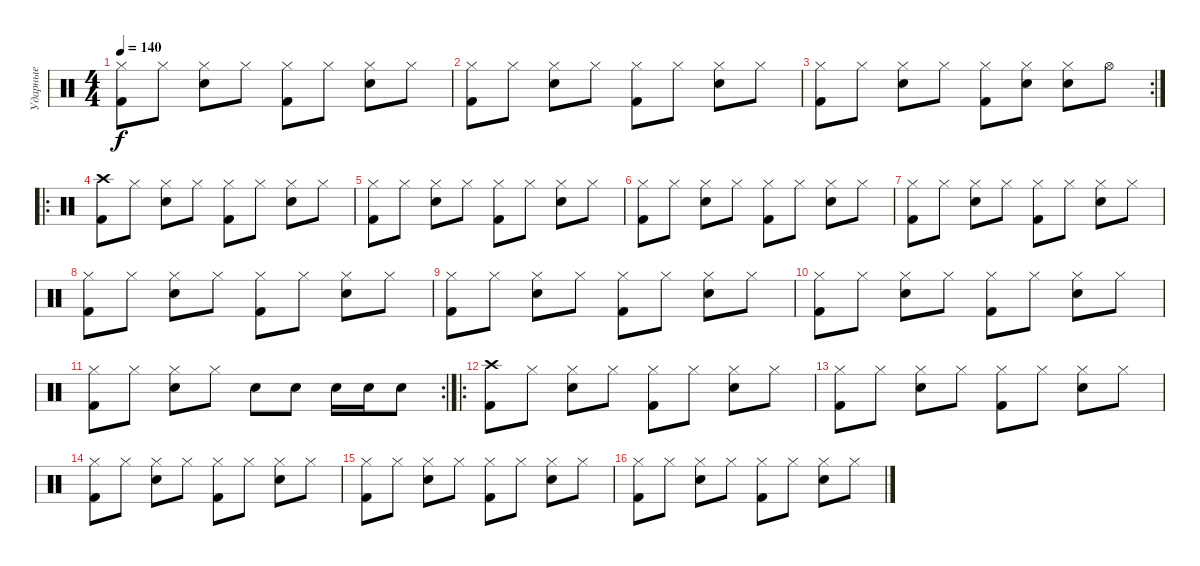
\track ("Ударные" "Ударные") {instrument percussion}
\staff {score}
\articulation defaults
\ts (4 4)
\tempo 140
\clef neutral
\ks c
("Hi-Hat (closed)" "Kick (hit) 2").8{dy f} "Hi-Hat (closed)".8 ("Hi-Hat (closed)" "Snare (hit) 2").8 "Hi-Hat (closed)".8 ("Hi-Hat (closed)" "Kick (hit) 2").8 "Hi-Hat (closed)".8 ("Hi-Hat (closed)" "Snare (hit) 2").8 "Hi-Hat (closed)".8 |
("Hi-Hat (closed)" "Kick (hit) 2").8 "Hi-Hat (closed)".8 ("Hi-Hat (closed)" "Snare (hit) 2").8 "Hi-Hat (closed)".8 ("Hi-Hat (closed)" "Kick (hit) 2").8 "Hi-Hat (closed)".8 ("Hi-Hat (closed)" "Snare (hit) 2").8 "Hi-Hat (closed)".8 |
\rc 2
("Hi-Hat (closed)" "Kick (hit) 2").8 "Hi-Hat (closed)".8 ("Hi-Hat (closed)" "Snare (hit) 2").8 "Hi-Hat (closed)".8 ("Hi-Hat (closed)" "Kick (hit) 2").8 ("Hi-Hat (closed)" "Snare (hit) 2").8 ("Hi-Hat (closed)" "Snare (hit) 2").8 "Hi-Hat (open)".8 |
\ro
("Crash high (hit)" "Kick (hit) 2").8 "Hi-Hat (closed)".8 ("Hi-Hat (closed)" "Snare (hit) 2").8 "Hi-Hat (closed)".8 ("Hi-Hat (closed)" "Kick (hit) 2").8 "Hi-Hat (closed)".8 ("Hi-Hat (closed)" "Snare (hit) 2").8 "Hi-Hat (closed)".8 |
("Hi-Hat (closed)" "Kick (hit) 2").8 "Hi-Hat (closed)".8 ("Hi-Hat (closed)" "Snare (hit) 2").8 "Hi-Hat (closed)".8 ("Hi-Hat (closed)" "Kick (hit) 2").8 "Hi-Hat (closed)".8 ("Hi-Hat (closed)" "Snare (hit) 2").8 "Hi-Hat (closed)".8 |
("Hi-Hat (closed)" "Kick (hit) 2").8 "Hi-Hat (closed)".8 ("Hi-Hat (closed)" "Snare (hit) 2").8 "Hi-Hat (closed)".8 ("Hi-Hat (closed)" "Kick (hit) 2").8 "Hi-Hat (closed)".8 ("Hi-Hat (closed)" "Snare (hit) 2").8 "Hi-Hat (closed)".8 |
("Hi-Hat (closed)" "Kick (hit) 2").8 "Hi-Hat (closed)".8 ("Hi-Hat (closed)" "Snare (hit) 2").8 "Hi-Hat (closed)".8 ("Hi-Hat (closed)" "Kick (hit) 2").8 "Hi-Hat (closed)".8 ("Hi-Hat (closed)" "Snare (hit) 2").8 "Hi-Hat (closed)".8 |
("Hi-Hat (closed)" "Kick (hit) 2").8 "Hi-Hat (closed)".8 ("Hi-Hat (closed)" "Snare (hit) 2").8 "Hi-Hat (closed)".8 ("Hi-Hat (closed)" "Kick (hit) 2").8 "Hi-Hat (closed)".8 ("Hi-Hat (closed)" "Snare (hit) 2").8 "Hi-Hat (closed)".8 |
("Hi-Hat (closed)" "Kick (hit) 2").8 "Hi-Hat (closed)".8 ("Hi-Hat (closed)" "Snare (hit) 2").8 "Hi-Hat (closed)".8 ("Hi-Hat (closed)" "Kick (hit) 2").8 "Hi-Hat (closed)".8 ("Hi-Hat (closed)" "Snare (hit) 2").8 "Hi-Hat (closed)".8 |
("Hi-Hat (closed)" "Kick (hit) 2").8 "Hi-Hat (closed)".8 ("Hi-Hat (closed)" "Snare (hit) 2").8 "Hi-Hat (closed)".8 ("Hi-Hat (closed)" "Kick (hit) 2").8 "Hi-Hat (closed)".8 ("Hi-Hat (closed)" "Snare (hit) 2").8 "Hi-Hat (closed)".8 |
\rc 2
("Hi-Hat (closed)" "Kick (hit) 2").8 "Hi-Hat (closed)".8 ("Hi-Hat (closed)" "Snare (hit) 2").8 "Hi-Hat (closed)".8 "Snare (hit) 2".8 "Snare (hit) 2".8 "Snare (hit) 2".16 "Snare (hit) 2".16 "Snare (hit) 2".8 |
\ro
("Crash high (hit)" "Kick (hit) 2").8 "Hi-Hat (closed)".8 ("Hi-Hat (closed)" "Snare (hit) 2").8 "Hi-Hat (closed)".8 ("Hi-Hat (closed)" "Kick (hit) 2").8 "Hi-Hat (closed)".8 ("Hi-Hat (closed)" "Snare (hit) 2").8 "Hi-Hat (closed)".8 |
("Hi-Hat (closed)" "Kick (hit) 2").8 "Hi-Hat (closed)".8 ("Hi-Hat (closed)" "Snare (hit) 2").8 "Hi-Hat (closed)".8 ("Hi-Hat (closed)" "Kick (hit) 2").8 "Hi-Hat (closed)".8 ("Hi-Hat (closed)" "Snare (hit) 2").8 "Hi-Hat (closed)".8 |
("Hi-Hat (closed)" "Kick (hit) 2").8 "Hi-Hat (closed)".8 ("Hi-Hat (closed)" "Snare (hit) 2").8 "Hi-Hat (closed)".8 ("Hi-Hat (closed)" "Kick (hit) 2").8 "Hi-Hat (closed)".8 ("Hi-Hat (closed)" "Snare (hit) 2").8 "Hi-Hat (closed)".8 |
("Hi-Hat (closed)" "Kick (hit) 2").8 "Hi-Hat (closed)".8 ("Hi-Hat (closed)" "Snare (hit) 2").8 "Hi-Hat (closed)".8 ("Hi-Hat (closed)" "Kick (hit) 2").8 "Hi-Hat (closed)".8 ("Hi-Hat (closed)" "Snare (hit) 2").8 "Hi-Hat (closed)".8 |
("Hi-Hat (closed)" "Kick (hit) 2").8 "Hi-Hat (closed)".8 ("Hi-Hat (closed)" "Snare (hit) 2").8 "Hi-Hat (closed)".8 ("Hi-Hat (closed)" "Kick (hit) 2").8 "Hi-Hat (closed)".8 ("Hi-Hat (closed)" "Snare (hit) 2").8 "Hi-Hat (closed)".8
